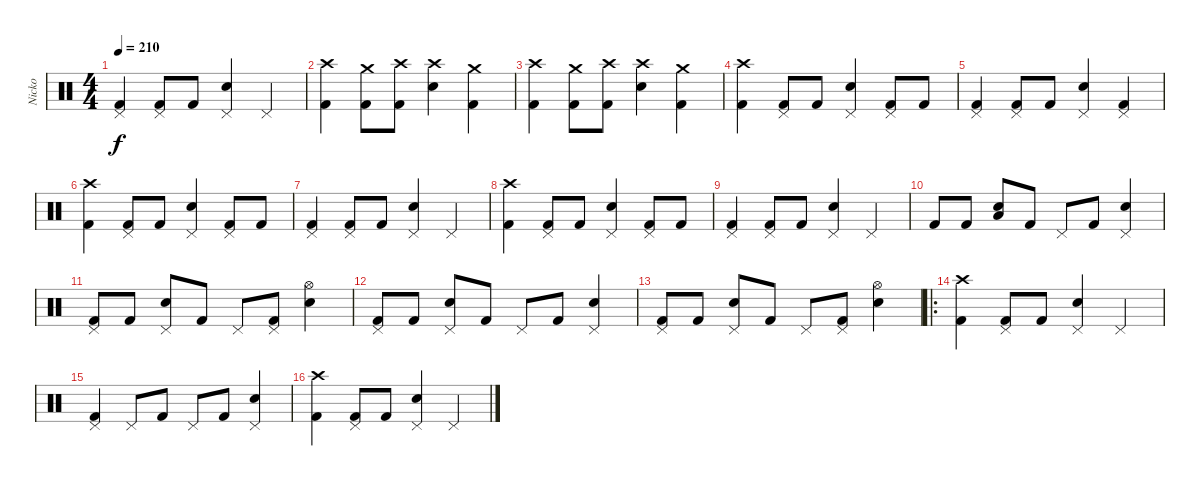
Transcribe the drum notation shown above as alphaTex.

\track ("Nicko" "Nicko") {instrument percussion}
\staff {score}
\articulation defaults
\ts (4 4)
\tempo 210
\clef neutral
\ks c
("Pedal Hi-Hat (hit)" "Kick (hit) 2").4{dy f} ("Pedal Hi-Hat (hit)" "Kick (hit) 2").8 "Kick (hit) 2".8 ("Pedal Hi-Hat (hit)" "Electric Snare (hit)").4 "Pedal Hi-Hat (hit)".4 |
("Crash high (hit)" "Kick (hit) 2").4 ("Crash medium (hit)" "Kick (hit) 2").8 ("Crash high (hit)" "Kick (hit) 2").8 ("Crash high (hit)" "Electric Snare (hit)").4 ("Crash medium (hit)" "Kick (hit) 2").4 |
("Crash high (hit)" "Kick (hit) 2").4 ("Crash medium (hit)" "Kick (hit) 2").8 ("Crash high (hit)" "Kick (hit) 2").8 ("Crash high (hit)" "Electric Snare (hit)").4 ("Crash medium (hit)" "Kick (hit) 2").4 |
("Crash high (hit)" "Kick (hit) 2").4 ("Pedal Hi-Hat (hit)" "Kick (hit) 2").8 "Kick (hit) 2".8 ("Pedal Hi-Hat (hit)" "Electric Snare (hit)").4 ("Pedal Hi-Hat (hit)" "Kick (hit) 2").8 "Kick (hit) 2".8 |
("Pedal Hi-Hat (hit)" "Kick (hit) 2").4 ("Pedal Hi-Hat (hit)" "Kick (hit) 2").8 "Kick (hit) 2".8 ("Pedal Hi-Hat (hit)" "Electric Snare (hit)").4 ("Pedal Hi-Hat (hit)" "Kick (hit) 2").4 |
("Crash high (hit)" "Kick (hit) 2").4 ("Pedal Hi-Hat (hit)" "Kick (hit) 2").8 "Kick (hit) 2".8 ("Pedal Hi-Hat (hit)" "Electric Snare (hit)").4 ("Pedal Hi-Hat (hit)" "Kick (hit) 2").8 "Kick (hit) 2".8 |
("Pedal Hi-Hat (hit)" "Kick (hit) 2").4 ("Pedal Hi-Hat (hit)" "Kick (hit) 2").8 "Kick (hit) 2".8 ("Pedal Hi-Hat (hit)" "Electric Snare (hit)").4 "Pedal Hi-Hat (hit)".4 |
("Crash high (hit)" "Kick (hit) 2").4 ("Pedal Hi-Hat (hit)" "Kick (hit) 2").8 "Kick (hit) 2".8 ("Pedal Hi-Hat (hit)" "Electric Snare (hit)").4 ("Pedal Hi-Hat (hit)" "Kick (hit) 2").8 "Kick (hit) 2".8 |
("Pedal Hi-Hat (hit)" "Kick (hit) 2").4 ("Pedal Hi-Hat (hit)" "Kick (hit) 2").8 "Kick (hit) 2".8 ("Pedal Hi-Hat (hit)" "Electric Snare (hit)").4 "Pedal Hi-Hat (hit)".4 |
"Kick (hit) 2".8 "Kick (hit) 2".8 ("Electric Snare (hit)" "Low Floor Tom (hit)").8 "Kick (hit) 2".8 "Pedal Hi-Hat (hit)".8 "Kick (hit) 2".8 ("Pedal Hi-Hat (hit)" "Electric Snare (hit)").4 |
("Pedal Hi-Hat (hit)" "Kick (hit) 2").8 "Kick (hit) 2".8 ("Pedal Hi-Hat (hit)" "Electric Snare (hit)").8 "Kick (hit) 2".8 "Pedal Hi-Hat (hit)".8 ("Pedal Hi-Hat (hit)" "Kick (hit) 2").8 ("Hi-Hat (open)" "Electric Snare (hit)").4 |
("Pedal Hi-Hat (hit)" "Kick (hit) 2").8 "Kick (hit) 2".8 ("Pedal Hi-Hat (hit)" "Electric Snare (hit)").8 "Kick (hit) 2".8 "Pedal Hi-Hat (hit)".8 "Kick (hit) 2".8 ("Pedal Hi-Hat (hit)" "Electric Snare (hit)").4 |
("Pedal Hi-Hat (hit)" "Kick (hit) 2").8 "Kick (hit) 2".8 ("Pedal Hi-Hat (hit)" "Electric Snare (hit)").8 "Kick (hit) 2".8 "Pedal Hi-Hat (hit)".8 ("Pedal Hi-Hat (hit)" "Kick (hit) 2").8 ("Hi-Hat (open)" "Electric Snare (hit)").4 |
\ro
("Crash high (hit)" "Kick (hit) 2").4 ("Pedal Hi-Hat (hit)" "Kick (hit) 2").8 "Kick (hit) 2".8 ("Pedal Hi-Hat (hit)" "Electric Snare (hit)").4 "Pedal Hi-Hat (hit)".4 |
("Pedal Hi-Hat (hit)" "Kick (hit) 2").4 "Pedal Hi-Hat (hit)".8 "Kick (hit) 2".8 "Pedal Hi-Hat (hit)".8 "Kick (hit) 2".8 ("Pedal Hi-Hat (hit)" "Electric Snare (hit)").4 |
("Crash high (hit)" "Kick (hit) 2").4 ("Pedal Hi-Hat (hit)" "Kick (hit) 2").8 "Kick (hit) 2".8 ("Pedal Hi-Hat (hit)" "Electric Snare (hit)").4 "Pedal Hi-Hat (hit)".4
